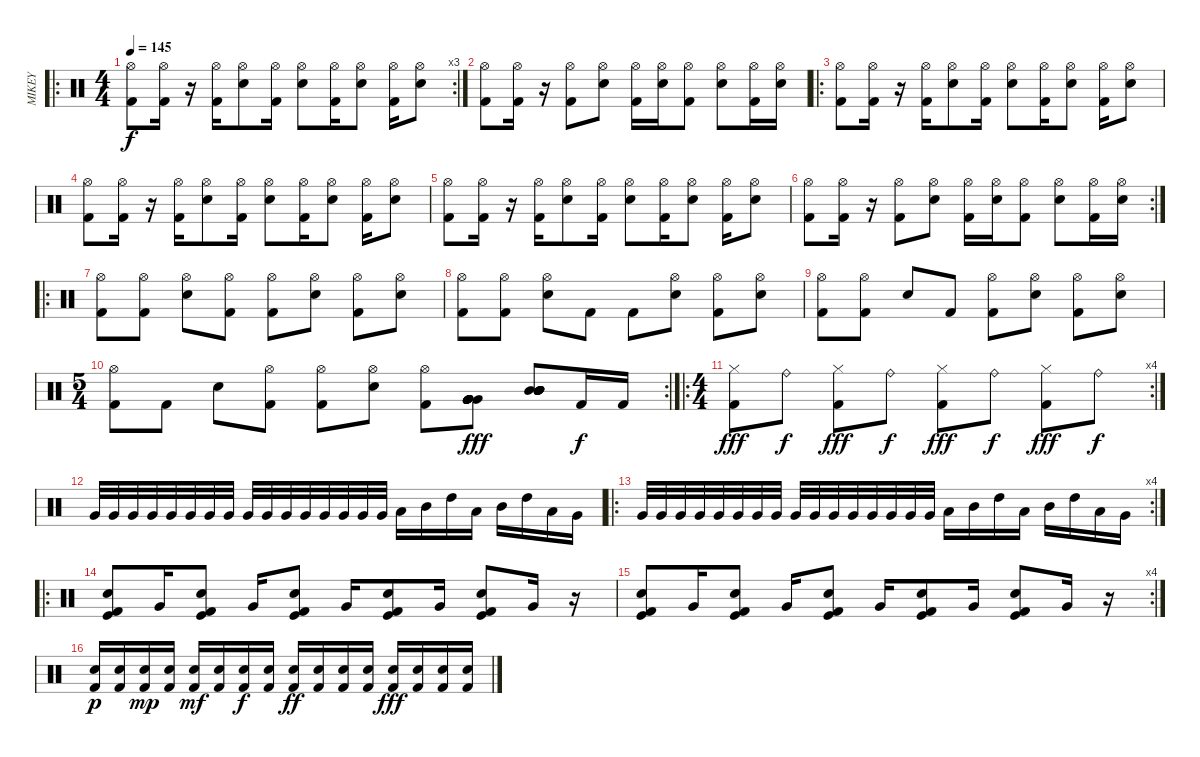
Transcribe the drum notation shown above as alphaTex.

\track ("MIKEY" "MIKEY") {instrument percussion}
\staff {score}
\articulation defaults
\ro
\rc 3
\ts (4 4)
\tempo 145
\clef neutral
\ks c
("Hi-Hat (open)" "Kick (hit) 2").8{dy f} ("Hi-Hat (open)" "Kick (hit) 2").16 r.16 ("Hi-Hat (open)" "Kick (hit) 2").16 ("Hi-Hat (open)" "Electric Snare (hit)").8 ("Hi-Hat (open)" "Kick (hit) 2").16 ("Hi-Hat (open)" "Electric Snare (hit)").8 ("Hi-Hat (open)" "Kick (hit) 2").16 ("Hi-Hat (open)" "Electric Snare (hit)").8 ("Hi-Hat (open)" "Kick (hit) 2").16 ("Hi-Hat (open)" "Electric Snare (hit)").8 |
("Hi-Hat (open)" "Kick (hit) 2").8 ("Hi-Hat (open)" "Kick (hit) 2").16 r.16 ("Hi-Hat (open)" "Kick (hit) 2").8 ("Hi-Hat (open)" "Electric Snare (hit)").8 ("Hi-Hat (open)" "Kick (hit) 2").16 ("Hi-Hat (open)" "Electric Snare (hit)").16 ("Hi-Hat (open)" "Kick (hit) 2").8 ("Hi-Hat (open)" "Electric Snare (hit)").8 ("Hi-Hat (open)" "Kick (hit) 2").16 ("Hi-Hat (open)" "Electric Snare (hit)").16 |
\ro
("Hi-Hat (open)" "Kick (hit) 2").8 ("Hi-Hat (open)" "Kick (hit) 2").16 r.16 ("Hi-Hat (open)" "Kick (hit) 2").16 ("Hi-Hat (open)" "Electric Snare (hit)").8 ("Hi-Hat (open)" "Kick (hit) 2").16 ("Hi-Hat (open)" "Electric Snare (hit)").8 ("Hi-Hat (open)" "Kick (hit) 2").16 ("Hi-Hat (open)" "Electric Snare (hit)").8 ("Hi-Hat (open)" "Kick (hit) 2").16 ("Hi-Hat (open)" "Electric Snare (hit)").8 |
("Hi-Hat (open)" "Kick (hit) 2").8 ("Hi-Hat (open)" "Kick (hit) 2").16 r.16 ("Hi-Hat (open)" "Kick (hit) 2").16 ("Hi-Hat (open)" "Electric Snare (hit)").8 ("Hi-Hat (open)" "Kick (hit) 2").16 ("Hi-Hat (open)" "Electric Snare (hit)").8 ("Hi-Hat (open)" "Kick (hit) 2").16 ("Hi-Hat (open)" "Electric Snare (hit)").8 ("Hi-Hat (open)" "Kick (hit) 2").16 ("Hi-Hat (open)" "Electric Snare (hit)").8 |
("Hi-Hat (open)" "Kick (hit) 2").8 ("Hi-Hat (open)" "Kick (hit) 2").16 r.16 ("Hi-Hat (open)" "Kick (hit) 2").16 ("Hi-Hat (open)" "Electric Snare (hit)").8 ("Hi-Hat (open)" "Kick (hit) 2").16 ("Hi-Hat (open)" "Electric Snare (hit)").8 ("Hi-Hat (open)" "Kick (hit) 2").16 ("Hi-Hat (open)" "Electric Snare (hit)").8 ("Hi-Hat (open)" "Kick (hit) 2").16 ("Hi-Hat (open)" "Electric Snare (hit)").8 |
\rc 2
("Hi-Hat (open)" "Kick (hit) 2").8 ("Hi-Hat (open)" "Kick (hit) 2").16 r.16 ("Hi-Hat (open)" "Kick (hit) 2").8 ("Hi-Hat (open)" "Electric Snare (hit)").8 ("Hi-Hat (open)" "Kick (hit) 2").16 ("Hi-Hat (open)" "Electric Snare (hit)").16 ("Hi-Hat (open)" "Kick (hit) 2").8 ("Hi-Hat (open)" "Electric Snare (hit)").8 ("Hi-Hat (open)" "Kick (hit) 2").16 ("Hi-Hat (open)" "Electric Snare (hit)").16 |
\ro
("Hi-Hat (open)" "Kick (hit) 2").8 ("Hi-Hat (open)" "Kick (hit) 2").8 ("Hi-Hat (open)" "Electric Snare (hit)").8 ("Hi-Hat (open)" "Kick (hit) 2").8 ("Hi-Hat (open)" "Kick (hit) 2").8 ("Hi-Hat (open)" "Electric Snare (hit)").8 ("Hi-Hat (open)" "Kick (hit) 2").8 ("Hi-Hat (open)" "Electric Snare (hit)").8 |
("Hi-Hat (open)" "Kick (hit) 2").8 ("Hi-Hat (open)" "Kick (hit) 2").8 ("Hi-Hat (open)" "Electric Snare (hit)").8 "Kick (hit) 2".8 "Kick (hit) 2".8 ("Hi-Hat (open)" "Electric Snare (hit)").8 ("Hi-Hat (open)" "Kick (hit) 2").8 ("Hi-Hat (open)" "Electric Snare (hit)").8 |
("Hi-Hat (open)" "Kick (hit) 2").8 ("Hi-Hat (open)" "Kick (hit) 2").8 "Electric Snare (hit)".8 "Kick (hit) 2".8 ("Hi-Hat (open)" "Kick (hit) 2").8 ("Hi-Hat (open)" "Electric Snare (hit)").8 ("Hi-Hat (open)" "Kick (hit) 2").8 ("Hi-Hat (open)" "Electric Snare (hit)").8 |
\rc 2
\ts (5 4)
("Hi-Hat (open)" "Kick (hit) 2").8 "Kick (hit) 2".8 "Electric Snare (hit)".8 ("Hi-Hat (open)" "Kick (hit) 2").8 ("Hi-Hat (open)" "Kick (hit) 2").8 ("Hi-Hat (open)" "Electric Snare (hit)").8 ("Hi-Hat (open)" "Kick (hit) 2").8 ("Very Low Tom (hit)" "Very Low Tom (hit)" "Very Low Tom (hit)" "Very Low Tom (hit)" "Very Low Tom (hit)" "Very Low Tom (hit)").8{dy fff} ("Mid Tom (hit)" "Mid Tom (hit)" "Mid Tom (hit)" "Mid Tom (hit)" "Mid Tom (hit)" "Mid Tom (hit)").8 "Kick (hit) 2".16{dy f} "Kick (hit) 2".16 |
\ro
\rc 4
\ts (4 4)
("Kick (hit) 2" "Hi-Hat (closed)").8{dy fff} "Ride (bell)".8{dy f} ("Kick (hit) 2" "Hi-Hat (closed)").8{dy fff} "Ride (bell)".8{dy f} ("Kick (hit) 2" "Hi-Hat (closed)").8{dy fff} "Ride (bell)".8{dy f} ("Kick (hit) 2" "Hi-Hat (closed)").8{dy fff} "Ride (bell)".8{dy f} |
"Very Low Tom (hit)".32 "Very Low Tom (hit)".32 "Very Low Tom (hit)".32 "Very Low Tom (hit)".32 "Very Low Tom (hit)".32 "Very Low Tom (hit)".32 "Very Low Tom (hit)".32 "Very Low Tom (hit)".32 "Very Low Tom (hit)".32 "Very Low Tom (hit)".32 "Very Low Tom (hit)".32 "Very Low Tom (hit)".32 "Very Low Tom (hit)".32 "Very Low Tom (hit)".32 "Very Low Tom (hit)".32 "Very Low Tom (hit)".32 "Low Tom (hit)".16 "Mid Tom (hit)".16 "High Tom (hit)".16 "Low Tom (hit)".16 "Mid Tom (hit)".16 "High Tom (hit)".16 "Low Tom (hit)".16 "Very Low Tom (hit)".16 |
\ro
\rc 4 "Very Low Tom (hit)".32 "Very Low Tom (hit)".32 "Very Low Tom (hit)".32 "Very Low Tom (hit)".32 "Very Low Tom (hit)".32 "Very Low Tom (hit)".32 "Very Low Tom (hit)".32 "Very Low Tom (hit)".32 "Very Low Tom (hit)".32 "Very Low Tom (hit)".32 "Very Low Tom (hit)".32 "Very Low Tom (hit)".32 "Very Low Tom (hit)".32 "Very Low Tom (hit)".32 "Very Low Tom (hit)".32 "Very Low Tom (hit)".32 "Low Tom (hit)".16 "Mid Tom (hit)".16 "High Tom (hit)".16 "Low Tom (hit)".16 "Mid Tom (hit)".16 "High Tom (hit)".16 "Low Tom (hit)".16 "Very Low Tom (hit)".16
|
\ro
("Kick (hit)" "Electric Snare (hit)" "Kick (hit) 2").8 "Very Low Tom (hit)".16 ("Kick (hit)" "Electric Snare (hit)" "Kick (hit) 2").8 "Very Low Tom (hit)".16 ("Kick (hit)" "Electric Snare (hit)" "Kick (hit) 2").8 "Very Low Tom (hit)".16 ("Kick (hit)" "Electric Snare (hit)" "Kick (hit) 2").8 "Very Low Tom (hit)".16 ("Kick (hit)" "Electric Snare (hit)" "Kick (hit) 2").8 "Very Low Tom (hit)".16 r.16 |
\rc 4
("Kick (hit)" "Electric Snare (hit)" "Kick (hit) 2").8 "Very Low Tom (hit)".16 ("Kick (hit)" "Electric Snare (hit)" "Kick (hit) 2").8 "Very Low Tom (hit)".16 ("Kick (hit)" "Electric Snare (hit)" "Kick (hit) 2").8 "Very Low Tom (hit)".16 ("Kick (hit)" "Electric Snare (hit)" "Kick (hit) 2").8 "Very Low Tom (hit)".16 ("Kick (hit)" "Electric Snare (hit)" "Kick (hit) 2").8 "Very Low Tom (hit)".16 r.16 |
("Kick (hit) 2" "Electric Snare (hit)").16{dy p} ("Kick (hit) 2" "Electric Snare (hit)").16 ("Kick (hit) 2" "Electric Snare (hit)").16{dy mp} ("Kick (hit) 2" "Electric Snare (hit)").16 ("Kick (hit) 2" "Electric Snare (hit)").16{dy mf} ("Kick (hit) 2" "Electric Snare (hit)").16 ("Kick (hit) 2" "Electric Snare (hit)").16{dy f} ("Kick (hit) 2" "Electric Snare (hit)").16 ("Kick (hit) 2" "Electric Snare (hit)").16{dy ff} ("Kick (hit) 2" "Electric Snare (hit)").16 ("Kick (hit) 2" "Electric Snare (hit)").16 ("Kick (hit) 2" "Electric Snare (hit)").16 ("Kick (hit) 2" "Electric Snare (hit)").16{dy fff} ("Kick (hit) 2" "Electric Snare (hit)").16 ("Kick (hit) 2" "Electric Snare (hit)").16 ("Kick (hit) 2" "Electric Snare (hit)").16
